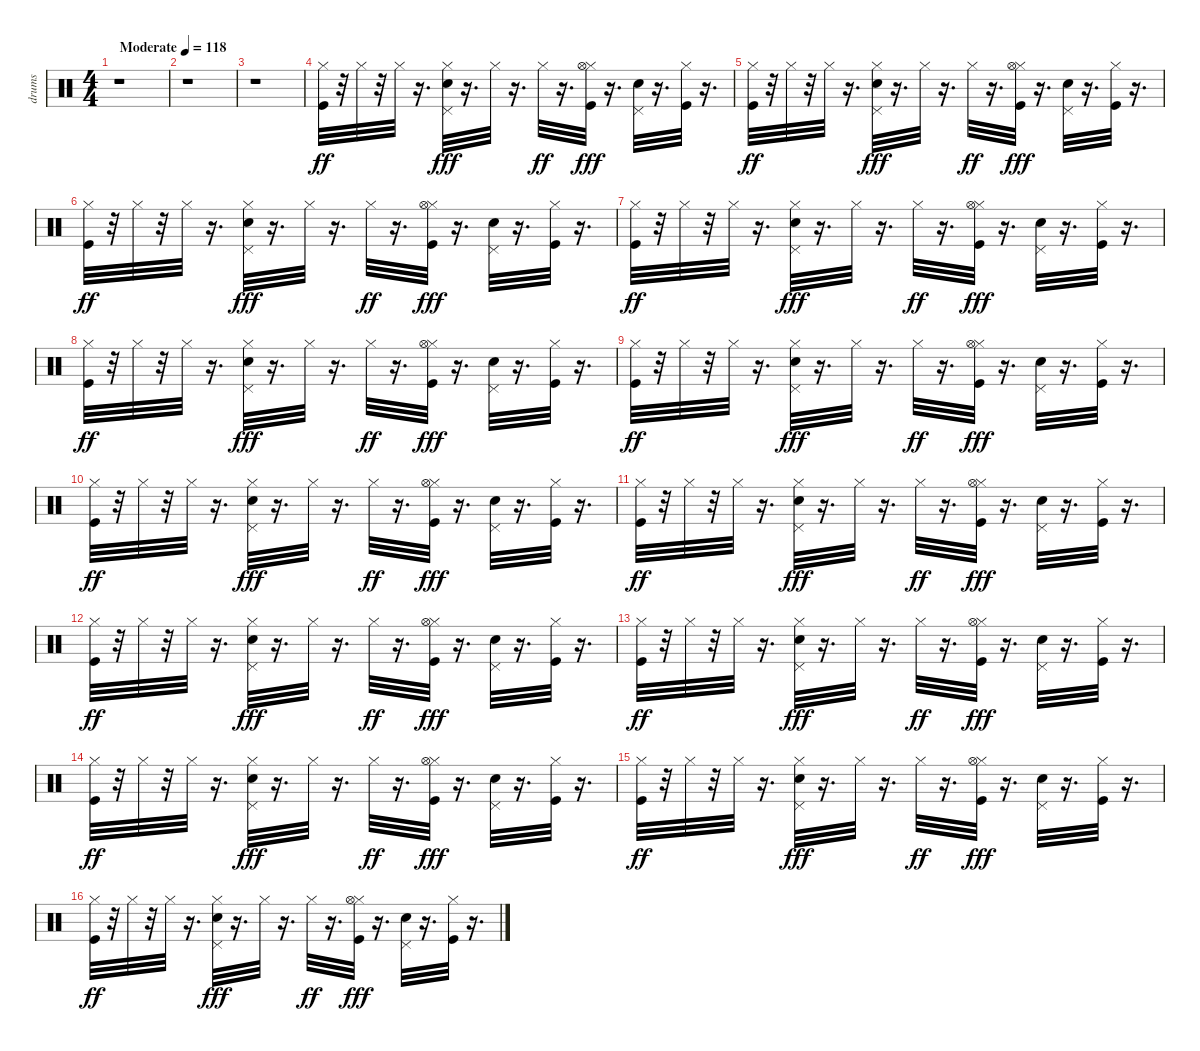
\track ("drums   " "drums   ") {instrument percussion}
\staff {score}
\articulation defaults
\ts (4 4)
\tempo (118 "Moderate")
\clef neutral
\ks c
r.1{dy ff} |
r.1 |
r.1 |
("Kick (hit)" "Hi-Hat (closed)").32 r.32 "Hi-Hat (closed)".32 r.32 "Hi-Hat (closed)".32 r.16{d} ("Electric Snare (hit)" "Hi-Hat (closed)" "Pedal Hi-Hat (hit)").32{dy fff} r.16{d} "Hi-Hat (closed)".32 r.16{d} "Hi-Hat (closed)".32{dy ff} r.16{d} ("Kick (hit)" "Hi-Hat (closed)" "Hi-Hat (open)").32{dy fff} r.16{d} ("Electric Snare (hit)" "Pedal Hi-Hat (hit)").32 r.16{d} ("Kick (hit)" "Hi-Hat (closed)").32 r.16{d} |
("Kick (hit)" "Hi-Hat (closed)").32{dy ff} r.32 "Hi-Hat (closed)".32 r.32 "Hi-Hat (closed)".32 r.16{d} ("Electric Snare (hit)" "Hi-Hat (closed)" "Pedal Hi-Hat (hit)").32{dy fff} r.16{d} "Hi-Hat (closed)".32 r.16{d} "Hi-Hat (closed)".32{dy ff} r.16{d} ("Kick (hit)" "Hi-Hat (closed)" "Hi-Hat (open)").32{dy fff} r.16{d} ("Electric Snare (hit)" "Pedal Hi-Hat (hit)").32 r.16{d} ("Kick (hit)" "Hi-Hat (closed)").32 r.16{d} |
("Kick (hit)" "Hi-Hat (closed)").32{dy ff} r.32 "Hi-Hat (closed)".32 r.32 "Hi-Hat (closed)".32 r.16{d} ("Electric Snare (hit)" "Hi-Hat (closed)" "Pedal Hi-Hat (hit)").32{dy fff} r.16{d} "Hi-Hat (closed)".32 r.16{d} "Hi-Hat (closed)".32{dy ff} r.16{d} ("Kick (hit)" "Hi-Hat (closed)" "Hi-Hat (open)").32{dy fff} r.16{d} ("Electric Snare (hit)" "Pedal Hi-Hat (hit)").32 r.16{d} ("Kick (hit)" "Hi-Hat (closed)").32 r.16{d} |
("Kick (hit)" "Hi-Hat (closed)").32{dy ff} r.32 "Hi-Hat (closed)".32 r.32 "Hi-Hat (closed)".32 r.16{d} ("Electric Snare (hit)" "Hi-Hat (closed)" "Pedal Hi-Hat (hit)").32{dy fff} r.16{d} "Hi-Hat (closed)".32 r.16{d} "Hi-Hat (closed)".32{dy ff} r.16{d} ("Kick (hit)" "Hi-Hat (closed)" "Hi-Hat (open)").32{dy fff} r.16{d} ("Electric Snare (hit)" "Pedal Hi-Hat (hit)").32 r.16{d} ("Kick (hit)" "Hi-Hat (closed)").32 r.16{d} |
("Kick (hit)" "Hi-Hat (closed)").32{dy ff} r.32 "Hi-Hat (closed)".32 r.32 "Hi-Hat (closed)".32 r.16{d} ("Electric Snare (hit)" "Hi-Hat (closed)" "Pedal Hi-Hat (hit)").32{dy fff} r.16{d} "Hi-Hat (closed)".32 r.16{d} "Hi-Hat (closed)".32{dy ff} r.16{d} ("Kick (hit)" "Hi-Hat (closed)" "Hi-Hat (open)").32{dy fff} r.16{d} ("Electric Snare (hit)" "Pedal Hi-Hat (hit)").32 r.16{d} ("Kick (hit)" "Hi-Hat (closed)").32 r.16{d} |
("Kick (hit)" "Hi-Hat (closed)").32{dy ff} r.32 "Hi-Hat (closed)".32 r.32 "Hi-Hat (closed)".32 r.16{d} ("Electric Snare (hit)" "Hi-Hat (closed)" "Pedal Hi-Hat (hit)").32{dy fff} r.16{d} "Hi-Hat (closed)".32 r.16{d} "Hi-Hat (closed)".32{dy ff} r.16{d} ("Kick (hit)" "Hi-Hat (closed)" "Hi-Hat (open)").32{dy fff} r.16{d} ("Electric Snare (hit)" "Pedal Hi-Hat (hit)").32 r.16{d} ("Kick (hit)" "Hi-Hat (closed)").32 r.16{d} |
("Kick (hit)" "Hi-Hat (closed)").32{dy ff} r.32 "Hi-Hat (closed)".32 r.32 "Hi-Hat (closed)".32 r.16{d} ("Electric Snare (hit)" "Hi-Hat (closed)" "Pedal Hi-Hat (hit)").32{dy fff} r.16{d} "Hi-Hat (closed)".32 r.16{d} "Hi-Hat (closed)".32{dy ff} r.16{d} ("Kick (hit)" "Hi-Hat (closed)" "Hi-Hat (open)").32{dy fff} r.16{d} ("Electric Snare (hit)" "Pedal Hi-Hat (hit)").32 r.16{d} ("Kick (hit)" "Hi-Hat (closed)").32 r.16{d} |
("Kick (hit)" "Hi-Hat (closed)").32{dy ff} r.32 "Hi-Hat (closed)".32 r.32 "Hi-Hat (closed)".32 r.16{d} ("Electric Snare (hit)" "Hi-Hat (closed)" "Pedal Hi-Hat (hit)").32{dy fff} r.16{d} "Hi-Hat (closed)".32 r.16{d} "Hi-Hat (closed)".32{dy ff} r.16{d} ("Kick (hit)" "Hi-Hat (closed)" "Hi-Hat (open)").32{dy fff} r.16{d} ("Electric Snare (hit)" "Pedal Hi-Hat (hit)").32 r.16{d} ("Kick (hit)" "Hi-Hat (closed)").32 r.16{d} |
("Kick (hit)" "Hi-Hat (closed)").32{dy ff} r.32 "Hi-Hat (closed)".32 r.32 "Hi-Hat (closed)".32 r.16{d} ("Electric Snare (hit)" "Hi-Hat (closed)" "Pedal Hi-Hat (hit)").32{dy fff} r.16{d} "Hi-Hat (closed)".32 r.16{d} "Hi-Hat (closed)".32{dy ff} r.16{d} ("Kick (hit)" "Hi-Hat (closed)" "Hi-Hat (open)").32{dy fff} r.16{d} ("Electric Snare (hit)" "Pedal Hi-Hat (hit)").32 r.16{d} ("Kick (hit)" "Hi-Hat (closed)").32 r.16{d} |
("Kick (hit)" "Hi-Hat (closed)").32{dy ff} r.32 "Hi-Hat (closed)".32 r.32 "Hi-Hat (closed)".32 r.16{d} ("Electric Snare (hit)" "Hi-Hat (closed)" "Pedal Hi-Hat (hit)").32{dy fff} r.16{d} "Hi-Hat (closed)".32 r.16{d} "Hi-Hat (closed)".32{dy ff} r.16{d} ("Kick (hit)" "Hi-Hat (closed)" "Hi-Hat (open)").32{dy fff} r.16{d} ("Electric Snare (hit)" "Pedal Hi-Hat (hit)").32 r.16{d} ("Kick (hit)" "Hi-Hat (closed)").32 r.16{d} |
("Kick (hit)" "Hi-Hat (closed)").32{dy ff} r.32 "Hi-Hat (closed)".32 r.32 "Hi-Hat (closed)".32 r.16{d} ("Electric Snare (hit)" "Hi-Hat (closed)" "Pedal Hi-Hat (hit)").32{dy fff} r.16{d} "Hi-Hat (closed)".32 r.16{d} "Hi-Hat (closed)".32{dy ff} r.16{d} ("Kick (hit)" "Hi-Hat (closed)" "Hi-Hat (open)").32{dy fff} r.16{d} ("Electric Snare (hit)" "Pedal Hi-Hat (hit)").32 r.16{d} ("Kick (hit)" "Hi-Hat (closed)").32 r.16{d} |
("Kick (hit)" "Hi-Hat (closed)").32{dy ff} r.32 "Hi-Hat (closed)".32 r.32 "Hi-Hat (closed)".32 r.16{d} ("Electric Snare (hit)" "Hi-Hat (closed)" "Pedal Hi-Hat (hit)").32{dy fff} r.16{d} "Hi-Hat (closed)".32 r.16{d} "Hi-Hat (closed)".32{dy ff} r.16{d} ("Kick (hit)" "Hi-Hat (closed)" "Hi-Hat (open)").32{dy fff} r.16{d} ("Electric Snare (hit)" "Pedal Hi-Hat (hit)").32 r.16{d} ("Kick (hit)" "Hi-Hat (closed)").32 r.16{d} |
("Kick (hit)" "Hi-Hat (closed)").32{dy ff} r.32 "Hi-Hat (closed)".32 r.32 "Hi-Hat (closed)".32 r.16{d} ("Electric Snare (hit)" "Hi-Hat (closed)" "Pedal Hi-Hat (hit)").32{dy fff} r.16{d} "Hi-Hat (closed)".32 r.16{d} "Hi-Hat (closed)".32{dy ff} r.16{d} ("Kick (hit)" "Hi-Hat (closed)" "Hi-Hat (open)").32{dy fff} r.16{d} ("Electric Snare (hit)" "Pedal Hi-Hat (hit)").32 r.16{d} ("Kick (hit)" "Hi-Hat (closed)").32 r.16{d}
